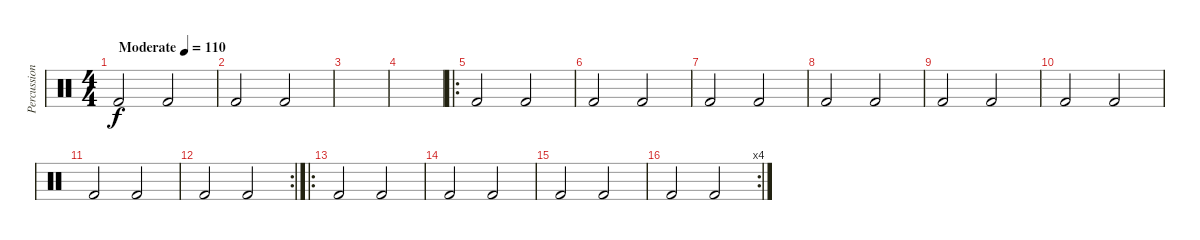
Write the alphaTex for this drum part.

\track ("Percussion" "Percussion") {mute instrument percussion}
\staff {score}
\articulation defaults
\ts (4 4)
\tempo (110 "Moderate")
\clef neutral
\ks c "Kick (hit) 2".2{dy f} "Kick (hit) 2".2
|
"Kick (hit) 2".2 "Kick (hit) 2".2 |
|
|
\ro "Kick (hit) 2".2 "Kick (hit) 2".2
|
"Kick (hit) 2".2 "Kick (hit) 2".2 |
"Kick (hit) 2".2 "Kick (hit) 2".2 |
"Kick (hit) 2".2 "Kick (hit) 2".2 |
"Kick (hit) 2".2 "Kick (hit) 2".2 |
"Kick (hit) 2".2 "Kick (hit) 2".2 |
"Kick (hit) 2".2 "Kick (hit) 2".2 |
\rc 2 "Kick (hit) 2".2 "Kick (hit) 2".2
|
\ro "Kick (hit) 2".2 "Kick (hit) 2".2
|
"Kick (hit) 2".2 "Kick (hit) 2".2 |
"Kick (hit) 2".2 "Kick (hit) 2".2 |
\rc 4 "Kick (hit) 2".2 "Kick (hit) 2".2
